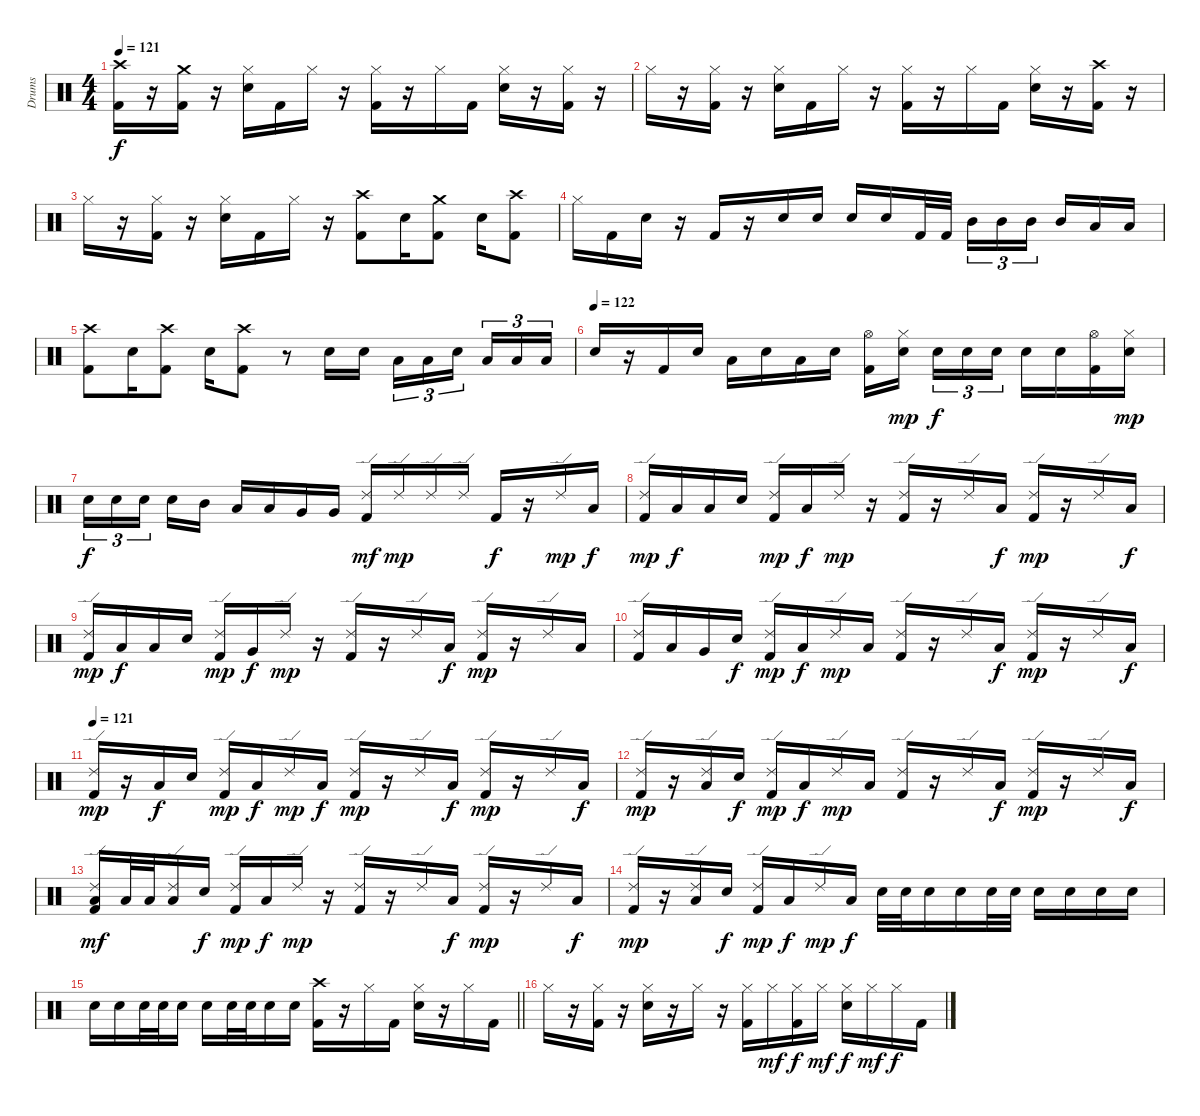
\track ("Drums" "Drums") {instrument percussion}
\staff {score}
\articulation defaults
\ts (4 4)
\section ("" "")
\tempo 121
\clef neutral
\ks c
("Crash high (hit)" "Kick (hit) 2").16{dy f} r.16 ("Crash medium (hit)" "Kick (hit) 2").16 r.16 ("Hi-Hat (closed)" "Snare (hit) 2").16 "Kick (hit) 2".16 "Hi-Hat (closed)".16 r.16 ("Hi-Hat (closed)" "Kick (hit) 2").16 r.16 "Hi-Hat (closed)".16 "Kick (hit) 2".16 ("Hi-Hat (closed)" "Snare (hit) 2").16 r.16 ("Hi-Hat (closed)" "Kick (hit) 2").16 r.16 |
"Hi-Hat (closed)".16 r.16 ("Hi-Hat (closed)" "Kick (hit) 2").16 r.16 ("Hi-Hat (closed)" "Snare (hit) 2").16 "Kick (hit) 2".16 "Hi-Hat (closed)".16 r.16 ("Hi-Hat (closed)" "Kick (hit) 2").16 r.16 "Hi-Hat (closed)".16 "Kick (hit) 2".16 ("Hi-Hat (closed)" "Snare (hit) 2").16 r.16 ("Crash high (hit)" "Kick (hit) 2").16 r.16 |
"Hi-Hat (closed)".16 r.16 ("Hi-Hat (closed)" "Kick (hit) 2").16 r.16 ("Hi-Hat (closed)" "Snare (hit) 2").16 "Kick (hit) 2".16 "Hi-Hat (closed)".16 r.16 ("Crash high (hit)" "Kick (hit) 2").8 "Snare (hit) 2".16 ("Crash medium (hit)" "Kick (hit) 2").8 "Snare (hit) 2".16 ("Crash high (hit)" "Kick (hit) 2").8 |
"Hi-Hat (closed)".16 "Kick (hit) 2".16 "Snare (hit) 2".16 r.16 "Kick (hit) 2".16 r.16 "Snare (hit) 2".16 "Snare (hit) 2".16 "Snare (hit) 2".16 "Snare (hit) 2".16 "Kick (hit) 2".32 "Kick (hit) 2".32{beam splitsecondary} "Mid Tom (hit)".16{tu (3 2)} "Mid Tom (hit)".16{tu (3 2)} "Mid Tom (hit)".16{tu (3 2) beam splitsecondary} "Mid Tom (hit)".16 "Low Tom (hit)".16 "Low Tom (hit)".16 |
("Crash high (hit)" "Kick (hit) 2").8 "Snare (hit) 2".16 ("Crash high (hit)" "Kick (hit) 2").8 "Snare (hit) 2".16 ("Crash high (hit)" "Kick (hit) 2").8 r.8 "Snare (hit) 2".16 "Snare (hit) 2".16 "Low Tom (hit)".16{tu (3 2)} "Low Tom (hit)".16{tu (3 2)} "Snare (hit) 2".16{tu (3 2) beam splitsecondary} "Low Tom (hit)".16{tu (3 2)} "Low Tom (hit)".16{tu (3 2)} "Low Tom (hit)".16{tu (3 2)} |
\tempo (122)
"Snare (hit) 2".16 r.16 "Kick (hit) 2".16 "Snare (hit) 2".16 "Low Tom (hit)".16 "Snare (hit) 2".16 "Low Tom (hit)".16 "Snare (hit) 2".16 ("Hi-Hat (open)" "Kick (hit) 2").16 ("Hi-Hat (closed)" "Snare (hit) 2").16{dy mp beam splitsecondary} "Snare (hit) 2".16{tu (3 2) dy f} "Snare (hit) 2".16{tu (3 2)} "Snare (hit) 2".16{tu (3 2)} "Snare (hit) 2".16 "Snare (hit) 2".16 ("Hi-Hat (open)" "Kick (hit) 2").16 ("Hi-Hat (closed)" "Snare (hit) 2").16{dy mp} |
"Snare (hit) 2".16{tu (3 2) dy f} "Snare (hit) 2".16{tu (3 2)} "Snare (hit) 2".16{tu (3 2) beam splitsecondary} "Snare (hit) 2".16 "Mid Tom (hit)".16 "Low Tom (hit)".16 "Low Tom (hit)".16 "Very Low Tom (hit)".16 "Very Low Tom (hit)".16 ("Ride (edge) 2" "Kick (hit) 2").16{dy mf} "Ride (edge) 2".16{dy mp} "Ride (edge) 2".16 "Ride (edge) 2".16 "Kick (hit) 2".16{dy f} r.16 "Ride (edge) 2".16{dy mp} "Low Tom (hit)".16{dy f} |
("Ride (edge) 2" "Kick (hit) 2").16{dy mp} "Low Tom (hit)".16{dy f} "Low Tom (hit)".16 "Snare (hit) 2".16 ("Ride (edge) 2" "Kick (hit) 2").16{dy mp} "Low Tom (hit)".16{dy f} "Ride (edge) 2".16{dy mp} r.16 ("Ride (edge) 2" "Kick (hit) 2").16 r.16 "Ride (edge) 2".16 "Low Tom (hit)".16{dy f} ("Ride (edge) 2" "Kick (hit) 2").16{dy mp} r.16 "Ride (edge) 2".16 "Low Tom (hit)".16{dy f} |
("Ride (edge) 2" "Kick (hit) 2").16{dy mp} "Low Tom (hit)".16{dy f} "Low Tom (hit)".16 "Snare (hit) 2".16 ("Ride (edge) 2" "Kick (hit) 2").16{dy mp} "Very Low Tom (hit)".16{dy f} "Ride (edge) 2".16{dy mp} r.16 ("Ride (edge) 2" "Kick (hit) 2").16 r.16 "Ride (edge) 2".16 "Low Tom (hit)".16{dy f} ("Ride (edge) 2" "Kick (hit) 2").16{dy mp} r.16 "Ride (edge) 2".16 "Low Tom (hit)".16 |
("Ride (edge) 2" "Kick (hit) 2").16 "Low Tom (hit)".16 "Very Low Tom (hit)".16 "Snare (hit) 2".16{dy f} ("Ride (edge) 2" "Kick (hit) 2").16{dy mp} "Low Tom (hit)".16{dy f} "Ride (edge) 2".16{dy mp} "Low Tom (hit)".16 ("Ride (edge) 2" "Kick (hit) 2").16 r.16 "Ride (edge) 2".16 "Low Tom (hit)".16{dy f} ("Ride (edge) 2" "Kick (hit) 2").16{dy mp} r.16 "Ride (edge) 2".16 "Low Tom (hit)".16{dy f} |
\tempo 121
("Ride (edge) 2" "Kick (hit) 2").16{dy mp} r.16 "Low Tom (hit)".16{dy f} "Snare (hit) 2".16 ("Ride (edge) 2" "Kick (hit) 2").16{dy mp} "Low Tom (hit)".16{dy f} "Ride (edge) 2".16{dy mp} "Low Tom (hit)".16{dy f} ("Ride (edge) 2" "Kick (hit) 2").16{dy mp} r.16 "Ride (edge) 2".16 "Low Tom (hit)".16{dy f} ("Ride (edge) 2" "Kick (hit) 2").16{dy mp} r.16 "Ride (edge) 2".16 "Low Tom (hit)".16{dy f} |
("Ride (edge) 2" "Kick (hit) 2").16{dy mp} r.16 ("Ride (edge) 2" "Low Tom (hit)").16 "Snare (hit) 2".16{dy f} ("Ride (edge) 2" "Kick (hit) 2").16{dy mp} "Low Tom (hit)".16{dy f} "Ride (edge) 2".16{dy mp} "Low Tom (hit)".16 ("Ride (edge) 2" "Kick (hit) 2").16 r.16 "Ride (edge) 2".16 "Low Tom (hit)".16{dy f} ("Ride (edge) 2" "Kick (hit) 2").16{dy mp} r.16 "Ride (edge) 2".16 "Low Tom (hit)".16{dy f} |
("Ride (edge) 2" "Low Tom (hit)" "Kick (hit) 2").16{dy mf} "Low Tom (hit)".32 "Low Tom (hit)".32 ("Ride (edge) 2" "Low Tom (hit)").16 "Snare (hit) 2".16{dy f} ("Ride (edge) 2" "Kick (hit) 2").16{dy mp} "Low Tom (hit)".16{dy f} "Ride (edge) 2".16{dy mp} r.16 ("Ride (edge) 2" "Kick (hit) 2").16 r.16 "Ride (edge) 2".16 "Low Tom (hit)".16{dy f} ("Ride (edge) 2" "Kick (hit) 2").16{dy mp} r.16 "Ride (edge) 2".16 "Low Tom (hit)".16{dy f} |
("Ride (edge) 2" "Kick (hit) 2").16{dy mp} r.16 ("Ride (edge) 2" "Low Tom (hit)").16 "Snare (hit) 2".16{dy f} ("Ride (edge) 2" "Kick (hit) 2").16{dy mp} "Low Tom (hit)".16{dy f} "Ride (edge) 2".16{dy mp} "Low Tom (hit)".16{dy f} "Snare (hit) 2".32 "Snare (hit) 2".32 "Snare (hit) 2".16 "Snare (hit) 2".16 "Snare (hit) 2".32 "Snare (hit) 2".32 "Snare (hit) 2".16 "Snare (hit) 2".16 "Snare (hit) 2".16 "Snare (hit) 2".16 |
\barLineRight lightlight "Snare (hit) 2".16 "Snare (hit) 2".16 "Snare (hit) 2".32 "Snare (hit) 2".32 "Snare (hit) 2".16 "Snare (hit) 2".16 "Snare (hit) 2".32 "Snare (hit) 2".32 "Snare (hit) 2".16 "Snare (hit) 2".16
("Crash high (hit)" "Kick (hit) 2").16 r.16 "Hi-Hat (closed)".16 "Kick (hit) 2".16 ("Hi-Hat (closed)" "Snare (hit) 2").16 r.16 "Hi-Hat (closed)".16 "Kick (hit) 2".16 |
\section ("" "")
"Hi-Hat (closed)".16 r.16 ("Hi-Hat (closed)" "Kick (hit) 2").16 r.16 ("Hi-Hat (closed)" "Snare (hit) 2").16 r.16 "Hi-Hat (closed)".16 r.16 ("Hi-Hat (closed)" "Kick (hit) 2").16 "Hi-Hat (closed)".16{dy mf} ("Hi-Hat (closed)" "Kick (hit) 2").16{dy f} "Hi-Hat (closed)".16{dy mf} ("Hi-Hat (closed)" "Snare (hit) 2").16{dy f} "Hi-Hat (closed)".16{dy mf} "Hi-Hat (closed)".16{dy f} "Kick (hit) 2".16
